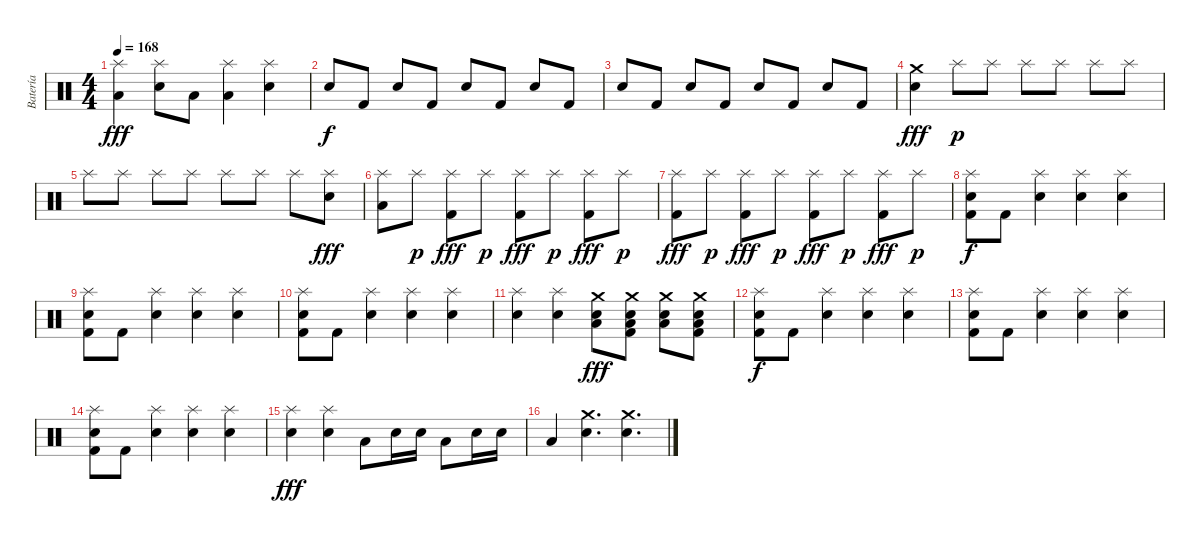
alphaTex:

\track ("Batería" "Batería") {instrument percussion}
\staff {score}
\articulation defaults
\ts (4 4)
\tempo 168
\clef neutral
\ks c
("Splash (hit)" "Low Floor Tom (hit)").4{dy fff} ("Splash (hit)" "Electric Snare (hit)").8 "Low Floor Tom (hit)".8 ("Splash (hit)" "Low Floor Tom (hit)").4 ("Splash (hit)" "Electric Snare (hit)").4 |
"Snare (hit) 2".8{dy f} "Kick (hit) 2".8 "Snare (hit) 2".8 "Kick (hit) 2".8 "Snare (hit) 2".8 "Kick (hit) 2".8 "Snare (hit) 2".8 "Kick (hit) 2".8 |
"Snare (hit) 2".8 "Kick (hit) 2".8 "Snare (hit) 2".8 "Kick (hit) 2".8 "Snare (hit) 2".8 "Kick (hit) 2".8 "Snare (hit) 2".8 "Kick (hit) 2".8 |
("Crash medium (hit)" "Electric Snare (hit)").4{dy fff} "Splash (hit)".8{dy p} "Splash (hit)".8 "Splash (hit)".8 "Splash (hit)".8 "Splash (hit)".8 "Splash (hit)".8 |
"Splash (hit)".8 "Splash (hit)".8 "Splash (hit)".8 "Splash (hit)".8 "Splash (hit)".8 "Splash (hit)".8 "Splash (hit)".8 ("Splash (hit)" "Electric Snare (hit)").8{dy fff} |
("Splash (hit)" "Low Floor Tom (hit)").8 "Splash (hit)".8{dy p} ("Splash (hit)" "Kick (hit) 2").8{dy fff} "Splash (hit)".8{dy p} ("Splash (hit)" "Kick (hit) 2").8{dy fff} "Splash (hit)".8{dy p} ("Splash (hit)" "Kick (hit) 2").8{dy fff} "Splash (hit)".8{dy p} |
("Splash (hit)" "Kick (hit) 2").8{dy fff} "Splash (hit)".8{dy p} ("Splash (hit)" "Kick (hit) 2").8{dy fff} "Splash (hit)".8{dy p} ("Splash (hit)" "Kick (hit) 2").8{dy fff} "Splash (hit)".8{dy p} ("Splash (hit)" "Kick (hit) 2").8{dy fff} "Splash (hit)".8{dy p} |
("Splash (hit)" "Electric Snare (hit)" "Kick (hit) 2").8{dy f} "Kick (hit) 2".8 ("Splash (hit)" "Electric Snare (hit)").4 ("Splash (hit)" "Electric Snare (hit)").4 ("Splash (hit)" "Electric Snare (hit)").4 |
("Splash (hit)" "Electric Snare (hit)" "Kick (hit) 2").8 "Kick (hit) 2".8 ("Splash (hit)" "Electric Snare (hit)").4 ("Splash (hit)" "Electric Snare (hit)").4 ("Splash (hit)" "Electric Snare (hit)").4 |
("Splash (hit)" "Electric Snare (hit)" "Kick (hit) 2").8 "Kick (hit) 2".8 ("Splash (hit)" "Electric Snare (hit)").4 ("Splash (hit)" "Electric Snare (hit)").4 ("Splash (hit)" "Electric Snare (hit)").4 |
("Splash (hit)" "Electric Snare (hit)").4 ("Splash (hit)" "Electric Snare (hit)").4 ("Crash medium (hit)" "Low Floor Tom (hit)" "Electric Snare (hit)").8{dy fff} ("Crash medium (hit)" "Low Floor Tom (hit)" "Snare (hit) 2" "Kick (hit) 2").8 ("Crash medium (hit)" "Low Floor Tom (hit)" "Electric Snare (hit)").8 ("Crash medium (hit)" "Low Floor Tom (hit)" "Snare (hit) 2" "Kick (hit) 2").8 |
("Splash (hit)" "Electric Snare (hit)" "Kick (hit) 2").8{dy f} "Kick (hit) 2".8 ("Splash (hit)" "Electric Snare (hit)").4 ("Splash (hit)" "Electric Snare (hit)").4 ("Splash (hit)" "Electric Snare (hit)").4 |
("Splash (hit)" "Electric Snare (hit)" "Kick (hit) 2").8 "Kick (hit) 2".8 ("Splash (hit)" "Electric Snare (hit)").4 ("Splash (hit)" "Electric Snare (hit)").4 ("Splash (hit)" "Electric Snare (hit)").4 |
("Splash (hit)" "Electric Snare (hit)" "Kick (hit) 2").8 "Kick (hit) 2".8 ("Splash (hit)" "Electric Snare (hit)").4 ("Splash (hit)" "Electric Snare (hit)").4 ("Splash (hit)" "Electric Snare (hit)").4 |
("Splash (hit)" "Electric Snare (hit)").4{dy fff} ("Splash (hit)" "Electric Snare (hit)").4 "Low Floor Tom (hit)".8 "Electric Snare (hit)".16 "Electric Snare (hit)".16 "Low Floor Tom (hit)".8 "Electric Snare (hit)".16 "Electric Snare (hit)".16 |
"Low Floor Tom (hit)".4 ("Crash medium (hit)" "Electric Snare (hit)").4{d} ("Crash medium (hit)" "Electric Snare (hit)").4{d}
